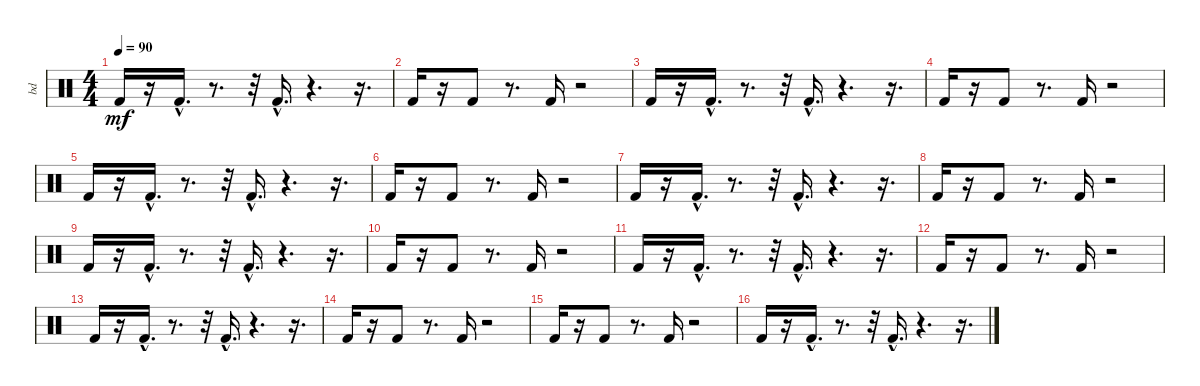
\track ("bd" "bd") {instrument percussion}
\staff {score}
\articulation defaults
\ts (4 4)
\tempo 90
\clef neutral
\ks c "Kick (hit) 2".16{dy mf}
r.16 "Kick (hit) 2"{hac}.16{d} r.8{d} r.32 "Kick (hit) 2"{hac}.16{d} r.4{d} r.16{d} |
"Kick (hit) 2".16 r.16 "Kick (hit) 2".8 r.8{d} "Kick (hit) 2".16 r.2 |
"Kick (hit) 2".16 r.16 "Kick (hit) 2"{hac}.16{d} r.8{d} r.32 "Kick (hit) 2"{hac}.16{d} r.4{d} r.16{d} |
"Kick (hit) 2".16 r.16 "Kick (hit) 2".8 r.8{d} "Kick (hit) 2".16 r.2 |
"Kick (hit) 2".16 r.16 "Kick (hit) 2"{hac}.16{d} r.8{d} r.32 "Kick (hit) 2"{hac}.16{d} r.4{d} r.16{d} |
"Kick (hit) 2".16 r.16 "Kick (hit) 2".8 r.8{d} "Kick (hit) 2".16 r.2 |
"Kick (hit) 2".16 r.16 "Kick (hit) 2"{hac}.16{d} r.8{d} r.32 "Kick (hit) 2"{hac}.16{d} r.4{d} r.16{d} |
"Kick (hit) 2".16 r.16 "Kick (hit) 2".8 r.8{d} "Kick (hit) 2".16 r.2 |
"Kick (hit) 2".16 r.16 "Kick (hit) 2"{hac}.16{d} r.8{d} r.32 "Kick (hit) 2"{hac}.16{d} r.4{d} r.16{d} |
"Kick (hit) 2".16 r.16 "Kick (hit) 2".8 r.8{d} "Kick (hit) 2".16 r.2 |
"Kick (hit) 2".16 r.16 "Kick (hit) 2"{hac}.16{d} r.8{d} r.32 "Kick (hit) 2"{hac}.16{d} r.4{d} r.16{d} |
"Kick (hit) 2".16 r.16 "Kick (hit) 2".8 r.8{d} "Kick (hit) 2".16 r.2 |
"Kick (hit) 2".16 r.16 "Kick (hit) 2"{hac}.16{d} r.8{d} r.32 "Kick (hit) 2"{hac}.16{d} r.4{d} r.16{d} |
"Kick (hit) 2".16 r.16 "Kick (hit) 2".8 r.8{d} "Kick (hit) 2".16 r.2 |
"Kick (hit) 2".16 r.16 "Kick (hit) 2".8 r.8{d} "Kick (hit) 2".16 r.2 |
"Kick (hit) 2".16 r.16 "Kick (hit) 2"{hac}.16{d} r.8{d} r.32 "Kick (hit) 2"{hac}.16{d} r.4{d} r.16{d}
